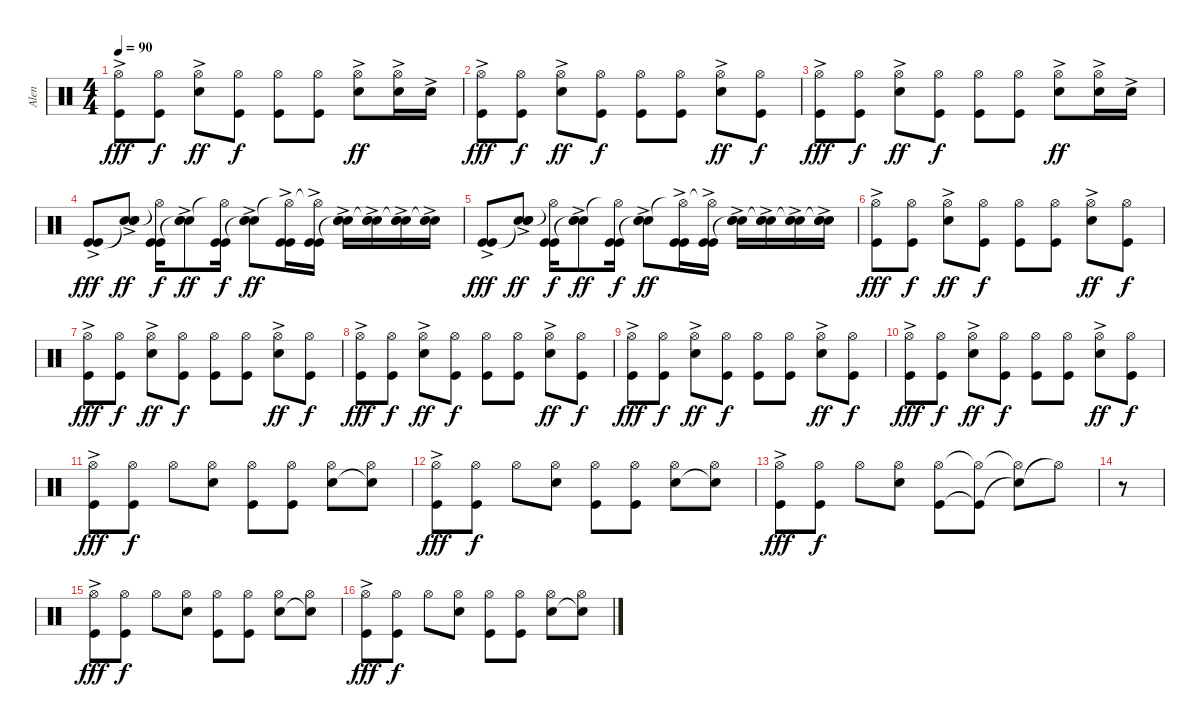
\track ("Alen" "Alen") {instrument percussion}
\staff {score}
\articulation defaults
\ts (4 4)
\tempo 90
\clef neutral
\ks c
("Kick (hit)"{ac} "Hi-Hat (open)").8{dy fff} ("Kick (hit)" "Hi-Hat (open)").8{dy f} ("Snare (hit) 2"{ac} "Hi-Hat (open)").8{dy ff} ("Kick (hit)" "Hi-Hat (open)").8{dy f} ("Kick (hit)" "Hi-Hat (open)").8 ("Kick (hit)" "Hi-Hat (open)").8 ("Snare (hit) 2"{ac} "Hi-Hat (open)").8{dy ff} ("Snare (hit) 2"{ac} "Hi-Hat (open)").16 "Snare (hit) 2"{ac}.16 |
("Kick (hit)"{ac} "Hi-Hat (open)").8{dy fff} ("Kick (hit)" "Hi-Hat (open)").8{dy f} ("Snare (hit) 2"{ac} "Hi-Hat (open)").8{dy ff} ("Kick (hit)" "Hi-Hat (open)").8{dy f} ("Kick (hit)" "Hi-Hat (open)").8 ("Kick (hit)" "Hi-Hat (open)").8 ("Snare (hit) 2"{ac} "Hi-Hat (open)").8{dy ff} ("Kick (hit)" "Hi-Hat (open)").8{dy f} |
("Kick (hit)"{ac} "Hi-Hat (open)").8{dy fff} ("Kick (hit)" "Hi-Hat (open)").8{dy f} ("Snare (hit) 2"{ac} "Hi-Hat (open)").8{dy ff} ("Kick (hit)" "Hi-Hat (open)").8{dy f} ("Kick (hit)" "Hi-Hat (open)").8 ("Kick (hit)" "Hi-Hat (open)").8 ("Snare (hit) 2"{ac} "Hi-Hat (open)").8{dy ff} ("Snare (hit) 2"{ac} "Hi-Hat (open)").16 "Snare (hit) 2"{ac}.16 |
("Kick (hit)"{ac} "Kick (hit)").8{dy fff} ("Electric Snare (hit)"{ac} "Snare (hit)"{t} "Snare (hit) 2").8{dy ff} ("Kick (hit)" "Kick (hit)" "Hi-Hat (open)"{t}).16{dy f} ("Electric Snare (hit)"{ac} "Snare (hit)"{t} "Snare (hit) 2").8{dy ff} ("Kick (hit)" "Kick (hit)" "Hi-Hat (open)"{t}).16{dy f} ("Electric Snare (hit)"{ac} "Snare (hit)"{t} "Snare (hit) 2").8{dy ff} ("Kick (hit)"{ac} "Kick (hit)" "Hi-Hat (open)"{t}).16 ("Kick (hit)"{ac} "Kick (hit)" "Hi-Hat (open)"{t}).16 ("Electric Snare (hit)"{ac} "Snare (hit)"{t} "Snare (hit) 2").16 ("Electric Snare (hit)"{ac} "Snare (hit)"{t} "Snare (hit) 2").16 ("Electric Snare (hit)"{ac} "Snare (hit)"{t} "Snare (hit) 2").16 ("Electric Snare (hit)"{ac} "Snare (hit)"{t} "Snare (hit) 2").16 |
("Kick (hit)"{ac} "Kick (hit)").8{dy fff} ("Electric Snare (hit)"{ac} "Snare (hit)"{t} "Snare (hit) 2").8{dy ff} ("Kick (hit)" "Kick (hit)" "Hi-Hat (open)"{t}).16{dy f} ("Electric Snare (hit)"{ac} "Snare (hit)"{t} "Snare (hit) 2").8{dy ff} ("Kick (hit)" "Kick (hit)" "Hi-Hat (open)"{t}).16{dy f} ("Electric Snare (hit)"{ac} "Snare (hit)"{t} "Snare (hit) 2").8{dy ff} ("Kick (hit)"{ac} "Kick (hit)" "Hi-Hat (open)"{t}).16 ("Kick (hit)"{ac} "Kick (hit)" "Hi-Hat (open)"{t}).16 ("Electric Snare (hit)"{ac} "Snare (hit)"{t} "Snare (hit) 2").16 ("Electric Snare (hit)"{ac} "Snare (hit)"{t} "Snare (hit) 2").16 ("Electric Snare (hit)"{ac} "Snare (hit)"{t} "Snare (hit) 2").16 ("Electric Snare (hit)"{ac} "Snare (hit)"{t} "Snare (hit) 2").16 |
("Kick (hit)"{ac} "Hi-Hat (open)").8{dy fff} ("Kick (hit)" "Hi-Hat (open)").8{dy f} ("Snare (hit) 2"{ac} "Hi-Hat (open)").8{dy ff} ("Kick (hit)" "Hi-Hat (open)").8{dy f} ("Kick (hit)" "Hi-Hat (open)").8 ("Kick (hit)" "Hi-Hat (open)").8 ("Snare (hit) 2"{ac} "Hi-Hat (open)").8{dy ff} ("Kick (hit)" "Hi-Hat (open)").8{dy f} |
("Kick (hit)"{ac} "Hi-Hat (open)").8{dy fff} ("Kick (hit)" "Hi-Hat (open)").8{dy f} ("Snare (hit) 2"{ac} "Hi-Hat (open)").8{dy ff} ("Kick (hit)" "Hi-Hat (open)").8{dy f} ("Kick (hit)" "Hi-Hat (open)").8 ("Kick (hit)" "Hi-Hat (open)").8 ("Snare (hit) 2"{ac} "Hi-Hat (open)").8{dy ff} ("Kick (hit)" "Hi-Hat (open)").8{dy f} |
("Kick (hit)"{ac} "Hi-Hat (open)").8{dy fff} ("Kick (hit)" "Hi-Hat (open)").8{dy f} ("Snare (hit) 2"{ac} "Hi-Hat (open)").8{dy ff} ("Kick (hit)" "Hi-Hat (open)").8{dy f} ("Kick (hit)" "Hi-Hat (open)").8 ("Kick (hit)" "Hi-Hat (open)").8 ("Snare (hit) 2"{ac} "Hi-Hat (open)").8{dy ff} ("Kick (hit)" "Hi-Hat (open)").8{dy f} |
("Kick (hit)"{ac} "Hi-Hat (open)").8{dy fff} ("Kick (hit)" "Hi-Hat (open)").8{dy f} ("Snare (hit) 2"{ac} "Hi-Hat (open)").8{dy ff} ("Kick (hit)" "Hi-Hat (open)").8{dy f} ("Kick (hit)" "Hi-Hat (open)").8 ("Kick (hit)" "Hi-Hat (open)").8 ("Snare (hit) 2"{ac} "Hi-Hat (open)").8{dy ff} ("Kick (hit)" "Hi-Hat (open)").8{dy f} |
("Kick (hit)"{ac} "Hi-Hat (open)").8{dy fff} ("Kick (hit)" "Hi-Hat (open)").8{dy f} ("Snare (hit) 2"{ac} "Hi-Hat (open)").8{dy ff} ("Kick (hit)" "Hi-Hat (open)").8{dy f} ("Kick (hit)" "Hi-Hat (open)").8 ("Kick (hit)" "Hi-Hat (open)").8 ("Snare (hit) 2"{ac} "Hi-Hat (open)").8{dy ff} ("Kick (hit)" "Hi-Hat (open)").8{dy f} |
("Kick (hit)"{ac} "Hi-Hat (open)").8{dy fff} ("Kick (hit)" "Hi-Hat (open)").8{dy f} "Hi-Hat (open)".8 ("Electric Snare (hit)" "Hi-Hat (open)").8 ("Kick (hit)" "Hi-Hat (open)").8 ("Kick (hit)" "Hi-Hat (open)").8 ("Electric Snare (hit)" "Hi-Hat (open)").8 ("Electric Snare (hit)"{t} "Hi-Hat (open)").8 |
("Kick (hit)"{ac} "Hi-Hat (open)").8{dy fff} ("Kick (hit)" "Hi-Hat (open)").8{dy f} "Hi-Hat (open)".8 ("Electric Snare (hit)" "Hi-Hat (open)").8 ("Kick (hit)" "Hi-Hat (open)").8 ("Kick (hit)" "Hi-Hat (open)").8 ("Electric Snare (hit)" "Hi-Hat (open)").8 ("Electric Snare (hit)"{t} "Hi-Hat (open)").8 |
("Kick (hit)"{ac} "Hi-Hat (open)").8{dy fff} ("Kick (hit)" "Hi-Hat (open)").8{dy f} "Hi-Hat (open)".8 ("Electric Snare (hit)" "Hi-Hat (open)").8 ("Kick (hit)" "Hi-Hat (open)").8 ("Kick (hit)"{t} "Hi-Hat (open)"{t}).8 ("Electric Snare (hit)"{t} "Hi-Hat (open)"{t}).8 "Hi-Hat (open)"{t}.8 |
r.8 |
("Kick (hit)"{ac} "Hi-Hat (open)").8{dy fff} ("Kick (hit)" "Hi-Hat (open)").8{dy f} "Hi-Hat (open)".8 ("Electric Snare (hit)" "Hi-Hat (open)").8 ("Kick (hit)" "Hi-Hat (open)").8 ("Kick (hit)" "Hi-Hat (open)").8 ("Electric Snare (hit)" "Hi-Hat (open)").8 ("Electric Snare (hit)"{t} "Hi-Hat (open)").8 |
("Kick (hit)"{ac} "Hi-Hat (open)").8{dy fff} ("Kick (hit)" "Hi-Hat (open)").8{dy f} "Hi-Hat (open)".8 ("Electric Snare (hit)" "Hi-Hat (open)").8 ("Kick (hit)" "Hi-Hat (open)").8 ("Kick (hit)" "Hi-Hat (open)").8 ("Electric Snare (hit)" "Hi-Hat (open)").8 ("Electric Snare (hit)"{t} "Hi-Hat (open)").8
